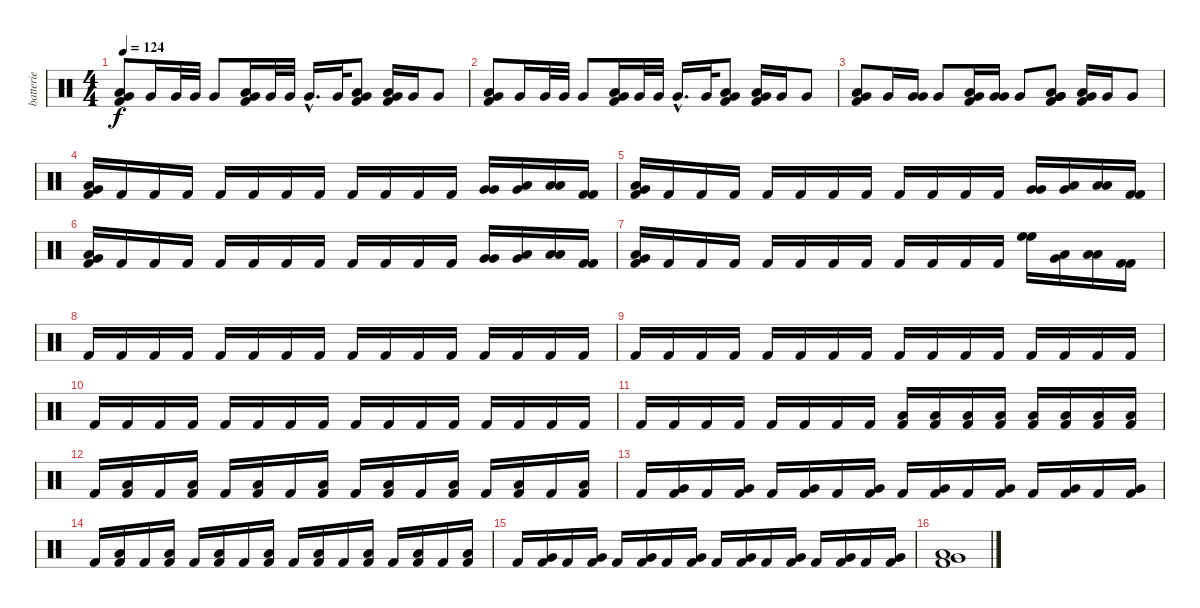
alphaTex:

\track ("batterie" "batterie") {instrument percussion}
\staff {score}
\articulation defaults
\ts (4 4)
\tempo 124
\clef neutral
\ks c
("Low Floor Tom (hit)" "Very Low Tom (hit)" "Kick (hit) 2").8{dy f} "Very Low Tom (hit)".16 "Very Low Tom (hit)".32 "Very Low Tom (hit)".32 "Very Low Tom (hit)".8 ("Low Floor Tom (hit)" "Very Low Tom (hit)" "Kick (hit) 2").16 "Very Low Tom (hit)".32 "Very Low Tom (hit)".32 "Very Low Tom (hit)"{hac}.16{d} "Very Low Tom (hit)".32 ("Low Floor Tom (hit)" "Very Low Tom (hit)" "Kick (hit) 2").8 ("Low Floor Tom (hit)" "Very Low Tom (hit)" "Kick (hit) 2").16 "Very Low Tom (hit)".16 "Very Low Tom (hit)".8 |
("Low Floor Tom (hit)" "Very Low Tom (hit)" "Kick (hit) 2").8 "Very Low Tom (hit)".16 "Very Low Tom (hit)".32 "Very Low Tom (hit)".32 "Very Low Tom (hit)".8 ("Low Floor Tom (hit)" "Very Low Tom (hit)" "Kick (hit) 2").16 "Very Low Tom (hit)".32 "Very Low Tom (hit)".32 "Very Low Tom (hit)"{hac}.16{d} "Very Low Tom (hit)".32 ("Low Floor Tom (hit)" "Very Low Tom (hit)" "Kick (hit) 2").8 ("Low Floor Tom (hit)" "Very Low Tom (hit)" "Kick (hit) 2").16 "Very Low Tom (hit)".16 "Very Low Tom (hit)".8 |
("Low Floor Tom (hit)" "Very Low Tom (hit)" "Kick (hit) 2").8 "Very Low Tom (hit)".16 ("Very Low Tom (hit)" "Very Low Tom (hit)").16 "Very Low Tom (hit)".8 ("Low Floor Tom (hit)" "Very Low Tom (hit)" "Kick (hit) 2").16 ("Very Low Tom (hit)" "Very Low Tom (hit)").16 "Very Low Tom (hit)".8 ("Very Low Tom (hit)" "Low Floor Tom (hit)" "Very Low Tom (hit)" "Kick (hit) 2").8 ("Low Floor Tom (hit)" "Very Low Tom (hit)" "Kick (hit) 2").16 "Very Low Tom (hit)".16 "Very Low Tom (hit)".8 |
("Low Floor Tom (hit)" "Very Low Tom (hit)" "Kick (hit) 2").16 "Kick (hit) 2".16 "Kick (hit) 2".16 "Kick (hit) 2".16 "Kick (hit) 2".16 "Kick (hit) 2".16 "Kick (hit) 2".16 "Kick (hit) 2".16 "Kick (hit) 2".16 "Kick (hit) 2".16 "Kick (hit) 2".16 "Kick (hit) 2".16 ("Very Low Tom (hit)" "Very Low Tom (hit)").16 ("Very Low Tom (hit)" "Low Floor Tom (hit)").16 ("Low Floor Tom (hit)" "Low Floor Tom (hit)").16 ("Kick (hit) 2" "Kick (hit) 2").16 |
("Low Floor Tom (hit)" "Very Low Tom (hit)" "Kick (hit) 2").16 "Kick (hit) 2".16 "Kick (hit) 2".16 "Kick (hit) 2".16 "Kick (hit) 2".16 "Kick (hit) 2".16 "Kick (hit) 2".16 "Kick (hit) 2".16 "Kick (hit) 2".16 "Kick (hit) 2".16 "Kick (hit) 2".16 "Kick (hit) 2".16 ("Very Low Tom (hit)" "Very Low Tom (hit)").16 ("Very Low Tom (hit)" "Low Floor Tom (hit)").16 ("Low Floor Tom (hit)" "Low Floor Tom (hit)").16 ("Kick (hit) 2" "Kick (hit) 2").16 |
("Low Floor Tom (hit)" "Very Low Tom (hit)" "Kick (hit) 2").16 "Kick (hit) 2".16 "Kick (hit) 2".16 "Kick (hit) 2".16 "Kick (hit) 2".16 "Kick (hit) 2".16 "Kick (hit) 2".16 "Kick (hit) 2".16 "Kick (hit) 2".16 "Kick (hit) 2".16 "Kick (hit) 2".16 "Kick (hit) 2".16 ("Very Low Tom (hit)" "Very Low Tom (hit)").16 ("Very Low Tom (hit)" "Low Floor Tom (hit)").16 ("Low Floor Tom (hit)" "Low Floor Tom (hit)").16 ("Kick (hit) 2" "Kick (hit) 2").16 |
("Low Floor Tom (hit)" "Very Low Tom (hit)" "Kick (hit) 2").16 "Kick (hit) 2".16 "Kick (hit) 2".16 "Kick (hit) 2".16 "Kick (hit) 2".16 "Kick (hit) 2".16 "Kick (hit) 2".16 "Kick (hit) 2".16 "Kick (hit) 2".16 "Kick (hit) 2".16 "Kick (hit) 2".16 "Kick (hit) 2".16 ("High Floor Tom (hit)" "High Floor Tom (hit)").16 ("Very Low Tom (hit)" "Low Floor Tom (hit)").16 ("Low Floor Tom (hit)" "Low Floor Tom (hit)").16 ("Kick (hit) 2" "Kick (hit) 2").16 |
"Kick (hit) 2".16 "Kick (hit) 2".16 "Kick (hit) 2".16 "Kick (hit) 2".16 "Kick (hit) 2".16 "Kick (hit) 2".16 "Kick (hit) 2".16 "Kick (hit) 2".16 "Kick (hit) 2".16 "Kick (hit) 2".16 "Kick (hit) 2".16 "Kick (hit) 2".16 "Kick (hit) 2".16 "Kick (hit) 2".16 "Kick (hit) 2".16 "Kick (hit) 2".16 |
"Kick (hit) 2".16 "Kick (hit) 2".16 "Kick (hit) 2".16 "Kick (hit) 2".16 "Kick (hit) 2".16 "Kick (hit) 2".16 "Kick (hit) 2".16 "Kick (hit) 2".16 "Kick (hit) 2".16 "Kick (hit) 2".16 "Kick (hit) 2".16 "Kick (hit) 2".16 "Kick (hit) 2".16 "Kick (hit) 2".16 "Kick (hit) 2".16 "Kick (hit) 2".16 |
"Kick (hit) 2".16 "Kick (hit) 2".16 "Kick (hit) 2".16 "Kick (hit) 2".16 "Kick (hit) 2".16 "Kick (hit) 2".16 "Kick (hit) 2".16 "Kick (hit) 2".16 "Kick (hit) 2".16 "Kick (hit) 2".16 "Kick (hit) 2".16 "Kick (hit) 2".16 "Kick (hit) 2".16 "Kick (hit) 2".16 "Kick (hit) 2".16 "Kick (hit) 2".16 |
"Kick (hit) 2".16 "Kick (hit) 2".16 "Kick (hit) 2".16 "Kick (hit) 2".16 "Kick (hit) 2".16 "Kick (hit) 2".16 "Kick (hit) 2".16 "Kick (hit) 2".16 ("Kick (hit) 2" "Low Floor Tom (hit)").16 ("Kick (hit) 2" "Low Floor Tom (hit)").16 ("Kick (hit) 2" "Low Floor Tom (hit)").16 ("Kick (hit) 2" "Low Floor Tom (hit)").16 ("Kick (hit) 2" "Low Floor Tom (hit)").16 ("Kick (hit) 2" "Low Floor Tom (hit)").16 ("Kick (hit) 2" "Low Floor Tom (hit)").16 ("Kick (hit) 2" "Low Floor Tom (hit)").16 |
"Kick (hit) 2".16 ("Low Floor Tom (hit)" "Kick (hit) 2").16 "Kick (hit) 2".16 ("Low Floor Tom (hit)" "Kick (hit) 2").16 "Kick (hit) 2".16 ("Low Floor Tom (hit)" "Kick (hit) 2").16 "Kick (hit) 2".16 ("Low Floor Tom (hit)" "Kick (hit) 2").16 "Kick (hit) 2".16 ("Low Floor Tom (hit)" "Kick (hit) 2").16 "Kick (hit) 2".16 ("Low Floor Tom (hit)" "Kick (hit) 2").16 "Kick (hit) 2".16 ("Low Floor Tom (hit)" "Kick (hit) 2").16 "Kick (hit) 2".16 ("Low Floor Tom (hit)" "Kick (hit) 2").16 |
"Kick (hit) 2".16 ("Very Low Tom (hit)" "Kick (hit) 2").16 "Kick (hit) 2".16 ("Very Low Tom (hit)" "Kick (hit) 2").16 "Kick (hit) 2".16 ("Very Low Tom (hit)" "Kick (hit) 2").16 "Kick (hit) 2".16 ("Very Low Tom (hit)" "Kick (hit) 2").16 "Kick (hit) 2".16 ("Very Low Tom (hit)" "Kick (hit) 2").16 "Kick (hit) 2".16 ("Very Low Tom (hit)" "Kick (hit) 2").16 "Kick (hit) 2".16 ("Very Low Tom (hit)" "Kick (hit) 2").16 "Kick (hit) 2".16 ("Very Low Tom (hit)" "Kick (hit) 2").16 |
"Kick (hit) 2".16 ("Low Floor Tom (hit)" "Kick (hit) 2").16 "Kick (hit) 2".16 ("Low Floor Tom (hit)" "Kick (hit) 2").16 "Kick (hit) 2".16 ("Low Floor Tom (hit)" "Kick (hit) 2").16 "Kick (hit) 2".16 ("Low Floor Tom (hit)" "Kick (hit) 2").16 "Kick (hit) 2".16 ("Low Floor Tom (hit)" "Kick (hit) 2").16 "Kick (hit) 2".16 ("Low Floor Tom (hit)" "Kick (hit) 2").16 "Kick (hit) 2".16 ("Low Floor Tom (hit)" "Kick (hit) 2").16 "Kick (hit) 2".16 ("Low Floor Tom (hit)" "Kick (hit) 2").16 |
"Kick (hit) 2".16 ("Very Low Tom (hit)" "Kick (hit) 2").16 "Kick (hit) 2".16 ("Very Low Tom (hit)" "Kick (hit) 2").16 "Kick (hit) 2".16 ("Very Low Tom (hit)" "Kick (hit) 2").16 "Kick (hit) 2".16 ("Very Low Tom (hit)" "Kick (hit) 2").16 "Kick (hit) 2".16 ("Very Low Tom (hit)" "Kick (hit) 2").16 "Kick (hit) 2".16 ("Very Low Tom (hit)" "Kick (hit) 2").16 "Kick (hit) 2".16 ("Very Low Tom (hit)" "Kick (hit) 2").16 "Kick (hit) 2".16 ("Very Low Tom (hit)" "Kick (hit) 2").16 |
("Very Low Tom (hit)" "Kick (hit) 2" "Low Floor Tom (hit)").1
